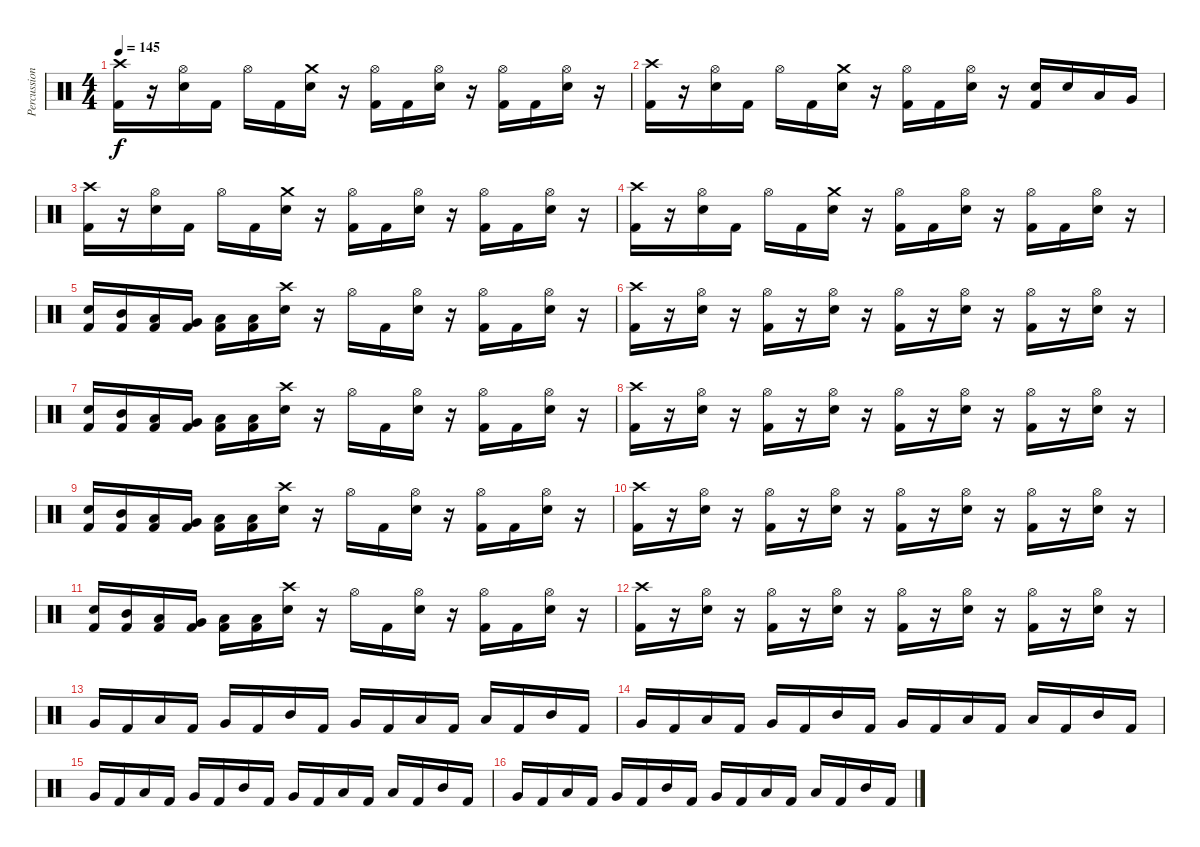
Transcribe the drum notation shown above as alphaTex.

\track ("Percussion - pinch" "Percussion") {instrument percussion}
\staff
\articulation defaults
\ts (4 4)
\tempo 145
\clef neutral
\ks c
("Crash high (hit)" "Kick (hit) 2").16{dy f} r.16 ("Hi-Hat (open)" "Electric Snare (hit)").16 "Kick (hit) 2".16 "Hi-Hat (open)".16 "Kick (hit) 2".16 ("Crash medium (hit)" "Electric Snare (hit)").16 r.16 ("Hi-Hat (open)" "Kick (hit) 2").16 "Kick (hit) 2".16 ("Hi-Hat (open)" "Electric Snare (hit)").16 r.16 ("Hi-Hat (open)" "Kick (hit) 2").16 "Kick (hit) 2".16 ("Hi-Hat (open)" "Electric Snare (hit)").16 r.16 |
("Crash high (hit)" "Kick (hit) 2").16 r.16 ("Hi-Hat (open)" "Electric Snare (hit)").16 "Kick (hit) 2".16 "Hi-Hat (open)".16 "Kick (hit) 2".16 ("Crash medium (hit)" "Electric Snare (hit)").16 r.16 ("Hi-Hat (open)" "Kick (hit) 2").16 "Kick (hit) 2".16 ("Hi-Hat (open)" "Electric Snare (hit)").16 r.16 ("Electric Snare (hit)" "Kick (hit) 2").16 "Electric Snare (hit)".16 "Low Tom (hit)".16 "Very Low Tom (hit)".16 |
("Crash high (hit)" "Kick (hit) 2").16 r.16 ("Hi-Hat (open)" "Electric Snare (hit)").16 "Kick (hit) 2".16 "Hi-Hat (open)".16 "Kick (hit) 2".16 ("Crash medium (hit)" "Electric Snare (hit)").16 r.16 ("Hi-Hat (open)" "Kick (hit) 2").16 "Kick (hit) 2".16 ("Hi-Hat (open)" "Electric Snare (hit)").16 r.16 ("Hi-Hat (open)" "Kick (hit) 2").16 "Kick (hit) 2".16 ("Hi-Hat (open)" "Electric Snare (hit)").16 r.16 |
("Crash high (hit)" "Kick (hit) 2").16 r.16 ("Hi-Hat (open)" "Electric Snare (hit)").16 "Kick (hit) 2".16 "Hi-Hat (open)".16 "Kick (hit) 2".16 ("Crash medium (hit)" "Electric Snare (hit)").16 r.16 ("Hi-Hat (open)" "Kick (hit) 2").16 "Kick (hit) 2".16 ("Hi-Hat (open)" "Electric Snare (hit)").16 r.16 ("Hi-Hat (open)" "Kick (hit) 2").16 "Kick (hit) 2".16 ("Hi-Hat (open)" "Electric Snare (hit)").16 r.16 |
("Electric Snare (hit)" "Kick (hit) 2").16 ("Mid Tom (hit)" "Kick (hit) 2").16 ("Low Tom (hit)" "Kick (hit) 2").16 ("Very Low Tom (hit)" "Kick (hit) 2").16 ("Low Floor Tom (hit)" "Kick (hit) 2").16 ("Low Floor Tom (hit)" "Kick (hit) 2").16 ("Crash high (hit)" "Electric Snare (hit)").16 r.16 "Hi-Hat (open)".16 "Kick (hit) 2".16 ("Hi-Hat (open)" "Electric Snare (hit)").16 r.16 ("Hi-Hat (open)" "Kick (hit) 2").16 "Kick (hit) 2".16 ("Hi-Hat (open)" "Electric Snare (hit)").16 r.16 |
("Crash high (hit)" "Kick (hit) 2").16 r.16 ("Hi-Hat (open)" "Electric Snare (hit)").16 r.16 ("Hi-Hat (open)" "Kick (hit) 2").16 r.16 ("Hi-Hat (open)" "Electric Snare (hit)").16 r.16 ("Hi-Hat (open)" "Kick (hit) 2").16 r.16 ("Hi-Hat (open)" "Electric Snare (hit)").16 r.16 ("Hi-Hat (open)" "Kick (hit) 2").16 r.16 ("Hi-Hat (open)" "Electric Snare (hit)").16 r.16 |
("Electric Snare (hit)" "Kick (hit) 2").16 ("Mid Tom (hit)" "Kick (hit) 2").16 ("Low Tom (hit)" "Kick (hit) 2").16 ("Very Low Tom (hit)" "Kick (hit) 2").16 ("Low Floor Tom (hit)" "Kick (hit) 2").16 ("Low Floor Tom (hit)" "Kick (hit) 2").16 ("Crash high (hit)" "Electric Snare (hit)").16 r.16 "Hi-Hat (open)".16 "Kick (hit) 2".16 ("Hi-Hat (open)" "Electric Snare (hit)").16 r.16 ("Hi-Hat (open)" "Kick (hit) 2").16 "Kick (hit) 2".16 ("Hi-Hat (open)" "Electric Snare (hit)").16 r.16 |
("Crash high (hit)" "Kick (hit) 2").16 r.16 ("Hi-Hat (open)" "Electric Snare (hit)").16 r.16 ("Hi-Hat (open)" "Kick (hit) 2").16 r.16 ("Hi-Hat (open)" "Electric Snare (hit)").16 r.16 ("Hi-Hat (open)" "Kick (hit) 2").16 r.16 ("Hi-Hat (open)" "Electric Snare (hit)").16 r.16 ("Hi-Hat (open)" "Kick (hit) 2").16 r.16 ("Hi-Hat (open)" "Electric Snare (hit)").16 r.16 |
("Electric Snare (hit)" "Kick (hit) 2").16 ("Mid Tom (hit)" "Kick (hit) 2").16 ("Low Tom (hit)" "Kick (hit) 2").16 ("Very Low Tom (hit)" "Kick (hit) 2").16 ("Low Floor Tom (hit)" "Kick (hit) 2").16 ("Low Floor Tom (hit)" "Kick (hit) 2").16 ("Crash high (hit)" "Electric Snare (hit)").16 r.16 "Hi-Hat (open)".16 "Kick (hit) 2".16 ("Hi-Hat (open)" "Electric Snare (hit)").16 r.16 ("Hi-Hat (open)" "Kick (hit) 2").16 "Kick (hit) 2".16 ("Hi-Hat (open)" "Electric Snare (hit)").16 r.16 |
("Crash high (hit)" "Kick (hit) 2").16 r.16 ("Hi-Hat (open)" "Electric Snare (hit)").16 r.16 ("Hi-Hat (open)" "Kick (hit) 2").16 r.16 ("Hi-Hat (open)" "Electric Snare (hit)").16 r.16 ("Hi-Hat (open)" "Kick (hit) 2").16 r.16 ("Hi-Hat (open)" "Electric Snare (hit)").16 r.16 ("Hi-Hat (open)" "Kick (hit) 2").16 r.16 ("Hi-Hat (open)" "Electric Snare (hit)").16 r.16 |
("Electric Snare (hit)" "Kick (hit) 2").16 ("Mid Tom (hit)" "Kick (hit) 2").16 ("Low Tom (hit)" "Kick (hit) 2").16 ("Very Low Tom (hit)" "Kick (hit) 2").16 ("Low Floor Tom (hit)" "Kick (hit) 2").16 ("Low Floor Tom (hit)" "Kick (hit) 2").16 ("Crash high (hit)" "Electric Snare (hit)").16 r.16 "Hi-Hat (open)".16 "Kick (hit) 2".16 ("Hi-Hat (open)" "Electric Snare (hit)").16 r.16 ("Hi-Hat (open)" "Kick (hit) 2").16 "Kick (hit) 2".16 ("Hi-Hat (open)" "Electric Snare (hit)").16 r.16 |
("Crash high (hit)" "Kick (hit) 2").16 r.16 ("Hi-Hat (open)" "Electric Snare (hit)").16 r.16 ("Hi-Hat (open)" "Kick (hit) 2").16 r.16 ("Hi-Hat (open)" "Electric Snare (hit)").16 r.16 ("Hi-Hat (open)" "Kick (hit) 2").16 r.16 ("Hi-Hat (open)" "Electric Snare (hit)").16 r.16 ("Hi-Hat (open)" "Kick (hit) 2").16 r.16 ("Hi-Hat (open)" "Electric Snare (hit)").16 r.16 |
"Very Low Tom (hit)".16 "Kick (hit) 2".16 "Low Tom (hit)".16 "Kick (hit) 2".16 "Very Low Tom (hit)".16 "Kick (hit) 2".16 "Mid Tom (hit)".16 "Kick (hit) 2".16 "Very Low Tom (hit)".16 "Kick (hit) 2".16 "Low Tom (hit)".16 "Kick (hit) 2".16 "Low Floor Tom (hit)".16 "Kick (hit) 2".16 "Mid Tom (hit)".16 "Kick (hit) 2".16 |
"Very Low Tom (hit)".16 "Kick (hit) 2".16 "Low Tom (hit)".16 "Kick (hit) 2".16 "Very Low Tom (hit)".16 "Kick (hit) 2".16 "Mid Tom (hit)".16 "Kick (hit) 2".16 "Very Low Tom (hit)".16 "Kick (hit) 2".16 "Low Tom (hit)".16 "Kick (hit) 2".16 "Low Floor Tom (hit)".16 "Kick (hit) 2".16 "Mid Tom (hit)".16 "Kick (hit) 2".16 |
"Very Low Tom (hit)".16 "Kick (hit) 2".16 "Low Tom (hit)".16 "Kick (hit) 2".16 "Very Low Tom (hit)".16 "Kick (hit) 2".16 "Mid Tom (hit)".16 "Kick (hit) 2".16 "Very Low Tom (hit)".16 "Kick (hit) 2".16 "Low Tom (hit)".16 "Kick (hit) 2".16 "Low Floor Tom (hit)".16 "Kick (hit) 2".16 "Mid Tom (hit)".16 "Kick (hit) 2".16 |
"Very Low Tom (hit)".16 "Kick (hit) 2".16 "Low Tom (hit)".16 "Kick (hit) 2".16 "Very Low Tom (hit)".16 "Kick (hit) 2".16 "Mid Tom (hit)".16 "Kick (hit) 2".16 "Very Low Tom (hit)".16 "Kick (hit) 2".16 "Low Tom (hit)".16 "Kick (hit) 2".16 "Low Floor Tom (hit)".16 "Kick (hit) 2".16 "Mid Tom (hit)".16 "Kick (hit) 2".16
